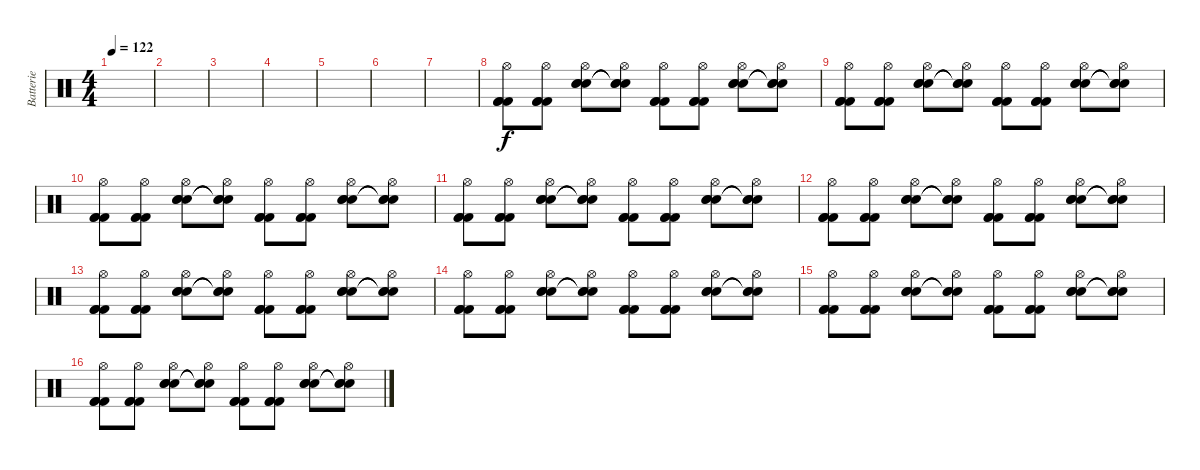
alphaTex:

\track ("Batterie" "Batterie") {instrument percussion}
\staff {score}
\articulation defaults
\ts (4 4)
\tempo 122
\clef neutral
\ks c
|
|
|
|
|
|
|
("Hi-Hat (open)" "Kick (hit) 2" "Kick (hit) 2" "Kick (hit) 2").8 ("Hi-Hat (open)" "Kick (hit) 2" "Kick (hit) 2" "Kick (hit) 2").8 ("Hi-Hat (open)" "Snare (hit) 2" "Snare (hit) 2" "Snare (hit) 2").8 ("Hi-Hat (open)" "Snare (hit)"{t} "Snare (hit)"{t} "Snare (hit)"{t}).8 ("Hi-Hat (open)" "Kick (hit) 2" "Kick (hit) 2" "Kick (hit) 2").8 ("Hi-Hat (open)" "Kick (hit) 2" "Kick (hit) 2" "Kick (hit) 2").8 ("Hi-Hat (open)" "Snare (hit) 2" "Snare (hit) 2" "Snare (hit) 2").8 ("Hi-Hat (open)" "Snare (hit)"{t} "Snare (hit)"{t} "Snare (hit)"{t}).8 |
("Hi-Hat (open)" "Kick (hit) 2" "Kick (hit) 2" "Kick (hit) 2").8 ("Hi-Hat (open)" "Kick (hit) 2" "Kick (hit) 2" "Kick (hit) 2").8 ("Hi-Hat (open)" "Snare (hit) 2" "Snare (hit) 2" "Snare (hit) 2").8 ("Hi-Hat (open)" "Snare (hit)"{t} "Snare (hit)"{t} "Snare (hit)"{t}).8 ("Hi-Hat (open)" "Kick (hit) 2" "Kick (hit) 2" "Kick (hit) 2").8 ("Hi-Hat (open)" "Kick (hit) 2" "Kick (hit) 2" "Kick (hit) 2").8 ("Hi-Hat (open)" "Snare (hit) 2" "Snare (hit) 2" "Snare (hit) 2").8 ("Hi-Hat (open)" "Snare (hit)"{t} "Snare (hit)"{t} "Snare (hit)"{t}).8 |
("Hi-Hat (open)" "Kick (hit) 2" "Kick (hit) 2" "Kick (hit) 2").8 ("Hi-Hat (open)" "Kick (hit) 2" "Kick (hit) 2" "Kick (hit) 2").8 ("Hi-Hat (open)" "Snare (hit) 2" "Snare (hit) 2" "Snare (hit) 2").8 ("Hi-Hat (open)" "Snare (hit)"{t} "Snare (hit)"{t} "Snare (hit)"{t}).8 ("Hi-Hat (open)" "Kick (hit) 2" "Kick (hit) 2" "Kick (hit) 2").8 ("Hi-Hat (open)" "Kick (hit) 2" "Kick (hit) 2" "Kick (hit) 2").8 ("Hi-Hat (open)" "Snare (hit) 2" "Snare (hit) 2" "Snare (hit) 2").8 ("Hi-Hat (open)" "Snare (hit)"{t} "Snare (hit)"{t} "Snare (hit)"{t}).8 |
("Hi-Hat (open)" "Kick (hit) 2" "Kick (hit) 2" "Kick (hit) 2").8 ("Hi-Hat (open)" "Kick (hit) 2" "Kick (hit) 2" "Kick (hit) 2").8 ("Hi-Hat (open)" "Snare (hit) 2" "Snare (hit) 2" "Snare (hit) 2").8 ("Hi-Hat (open)" "Snare (hit)"{t} "Snare (hit)"{t} "Snare (hit)"{t}).8 ("Hi-Hat (open)" "Kick (hit) 2" "Kick (hit) 2" "Kick (hit) 2").8 ("Hi-Hat (open)" "Kick (hit) 2" "Kick (hit) 2" "Kick (hit) 2").8 ("Hi-Hat (open)" "Snare (hit) 2" "Snare (hit) 2" "Snare (hit) 2").8 ("Hi-Hat (open)" "Snare (hit)"{t} "Snare (hit)"{t} "Snare (hit)"{t}).8 |
("Hi-Hat (open)" "Kick (hit) 2" "Kick (hit) 2" "Kick (hit) 2").8 ("Hi-Hat (open)" "Kick (hit) 2" "Kick (hit) 2" "Kick (hit) 2").8 ("Hi-Hat (open)" "Snare (hit) 2" "Snare (hit) 2" "Snare (hit) 2").8 ("Hi-Hat (open)" "Snare (hit)"{t} "Snare (hit)"{t} "Snare (hit)"{t}).8 ("Hi-Hat (open)" "Kick (hit) 2" "Kick (hit) 2" "Kick (hit) 2").8 ("Hi-Hat (open)" "Kick (hit) 2" "Kick (hit) 2" "Kick (hit) 2").8 ("Hi-Hat (open)" "Snare (hit) 2" "Snare (hit) 2" "Snare (hit) 2").8 ("Hi-Hat (open)" "Snare (hit)"{t} "Snare (hit)"{t} "Snare (hit)"{t}).8 |
("Hi-Hat (open)" "Kick (hit) 2" "Kick (hit) 2" "Kick (hit) 2").8 ("Hi-Hat (open)" "Kick (hit) 2" "Kick (hit) 2" "Kick (hit) 2").8 ("Hi-Hat (open)" "Snare (hit) 2" "Snare (hit) 2" "Snare (hit) 2").8 ("Hi-Hat (open)" "Snare (hit)"{t} "Snare (hit)"{t} "Snare (hit)"{t}).8 ("Hi-Hat (open)" "Kick (hit) 2" "Kick (hit) 2" "Kick (hit) 2").8 ("Hi-Hat (open)" "Kick (hit) 2" "Kick (hit) 2" "Kick (hit) 2").8 ("Hi-Hat (open)" "Snare (hit) 2" "Snare (hit) 2" "Snare (hit) 2").8 ("Hi-Hat (open)" "Snare (hit)"{t} "Snare (hit)"{t} "Snare (hit)"{t}).8 |
("Hi-Hat (open)" "Kick (hit) 2" "Kick (hit) 2" "Kick (hit) 2").8 ("Hi-Hat (open)" "Kick (hit) 2" "Kick (hit) 2" "Kick (hit) 2").8 ("Hi-Hat (open)" "Snare (hit) 2" "Snare (hit) 2" "Snare (hit) 2").8 ("Hi-Hat (open)" "Snare (hit)"{t} "Snare (hit)"{t} "Snare (hit)"{t}).8 ("Hi-Hat (open)" "Kick (hit) 2" "Kick (hit) 2" "Kick (hit) 2").8 ("Hi-Hat (open)" "Kick (hit) 2" "Kick (hit) 2" "Kick (hit) 2").8 ("Hi-Hat (open)" "Snare (hit) 2" "Snare (hit) 2" "Snare (hit) 2").8 ("Hi-Hat (open)" "Snare (hit)"{t} "Snare (hit)"{t} "Snare (hit)"{t}).8 |
("Hi-Hat (open)" "Kick (hit) 2" "Kick (hit) 2" "Kick (hit) 2").8 ("Hi-Hat (open)" "Kick (hit) 2" "Kick (hit) 2" "Kick (hit) 2").8 ("Hi-Hat (open)" "Snare (hit) 2" "Snare (hit) 2" "Snare (hit) 2").8 ("Hi-Hat (open)" "Snare (hit)"{t} "Snare (hit)"{t} "Snare (hit)"{t}).8 ("Hi-Hat (open)" "Kick (hit) 2" "Kick (hit) 2" "Kick (hit) 2").8 ("Hi-Hat (open)" "Kick (hit) 2" "Kick (hit) 2" "Kick (hit) 2").8 ("Hi-Hat (open)" "Snare (hit) 2" "Snare (hit) 2" "Snare (hit) 2").8 ("Hi-Hat (open)" "Snare (hit)"{t} "Snare (hit)"{t} "Snare (hit)"{t}).8 |
("Hi-Hat (open)" "Kick (hit) 2" "Kick (hit) 2" "Kick (hit) 2").8 ("Hi-Hat (open)" "Kick (hit) 2" "Kick (hit) 2" "Kick (hit) 2").8 ("Hi-Hat (open)" "Snare (hit) 2" "Snare (hit) 2" "Snare (hit) 2").8 ("Hi-Hat (open)" "Snare (hit)"{t} "Snare (hit)"{t} "Snare (hit)"{t}).8 ("Hi-Hat (open)" "Kick (hit) 2" "Kick (hit) 2" "Kick (hit) 2").8 ("Hi-Hat (open)" "Kick (hit) 2" "Kick (hit) 2" "Kick (hit) 2").8 ("Hi-Hat (open)" "Snare (hit) 2" "Snare (hit) 2" "Snare (hit) 2").8 ("Hi-Hat (open)" "Snare (hit)"{t} "Snare (hit)"{t} "Snare (hit)"{t}).8
